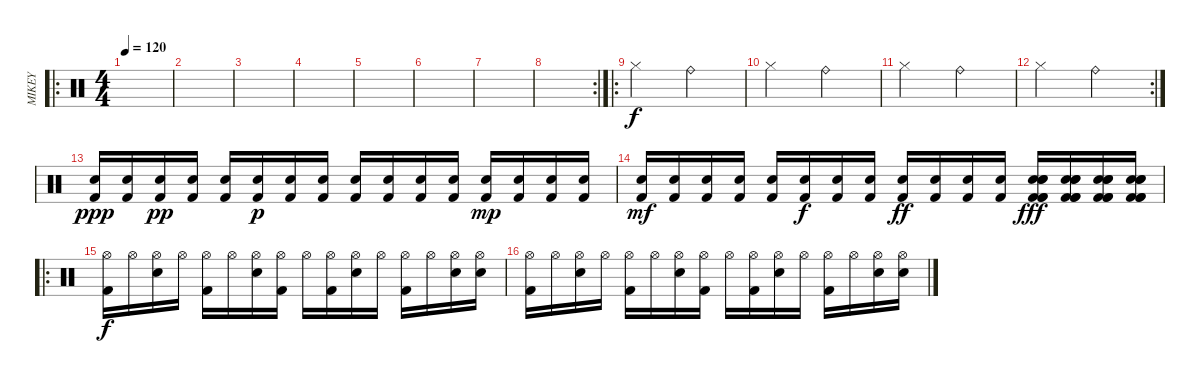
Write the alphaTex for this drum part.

\track ("MIKEY" "MIKEY") {instrument percussion}
\staff {score}
\articulation defaults
\ro
\ts (4 4)
\tempo 120
\clef neutral
\ks c
|
|
|
|
|
|
|
\rc 2
|
\ro "Hi-Hat (closed)".2 "Ride (bell)".2
|
"Hi-Hat (closed)".2 "Ride (bell)".2 |
"Hi-Hat (closed)".2 "Ride (bell)".2 |
\rc 2 "Hi-Hat (closed)".2 "Ride (bell)".2
|
("Kick (hit) 2" "Electric Snare (hit)").16{dy ppp} ("Kick (hit) 2" "Electric Snare (hit)").16 ("Kick (hit) 2" "Electric Snare (hit)").16{dy pp} ("Kick (hit) 2" "Electric Snare (hit)").16 ("Kick (hit) 2" "Electric Snare (hit)").16 ("Kick (hit) 2" "Electric Snare (hit)").16{dy p} ("Kick (hit) 2" "Electric Snare (hit)").16 ("Kick (hit) 2" "Electric Snare (hit)").16 ("Kick (hit) 2" "Electric Snare (hit)").16 ("Kick (hit) 2" "Electric Snare (hit)").16 ("Kick (hit) 2" "Electric Snare (hit)").16 ("Kick (hit) 2" "Electric Snare (hit)").16 ("Kick (hit) 2" "Electric Snare (hit)").16{dy mp} ("Kick (hit) 2" "Electric Snare (hit)").16 ("Kick (hit) 2" "Electric Snare (hit)").16 ("Kick (hit) 2" "Electric Snare (hit)").16 |
("Kick (hit) 2" "Electric Snare (hit)").16{dy mf} ("Kick (hit) 2" "Electric Snare (hit)").16 ("Kick (hit) 2" "Electric Snare (hit)").16 ("Kick (hit) 2" "Electric Snare (hit)").16 ("Kick (hit) 2" "Electric Snare (hit)").16 ("Kick (hit) 2" "Electric Snare (hit)").16{dy f} ("Kick (hit) 2" "Electric Snare (hit)").16 ("Kick (hit) 2" "Electric Snare (hit)").16 ("Kick (hit) 2" "Electric Snare (hit)").16{dy ff} ("Kick (hit) 2" "Electric Snare (hit)").16 ("Kick (hit) 2" "Electric Snare (hit)").16 ("Kick (hit) 2" "Electric Snare (hit)").16 ("Electric Snare (hit)" "Kick (hit) 2" "Electric Snare (hit)" "Kick (hit) 2" "Kick (hit) 2" "Electric Snare (hit)").16{dy fff} ("Electric Snare (hit)" "Kick (hit) 2" "Electric Snare (hit)" "Kick (hit) 2" "Kick (hit) 2" "Electric Snare (hit)").16 ("Electric Snare (hit)" "Kick (hit) 2" "Electric Snare (hit)" "Kick (hit) 2" "Kick (hit) 2" "Electric Snare (hit)").16 ("Electric Snare (hit)" "Kick (hit) 2" "Electric Snare (hit)" "Kick (hit) 2" "Kick (hit) 2" "Electric Snare (hit)").16 |
\ro
("Kick (hit) 2" "Hi-Hat (open)").16{dy f} "Hi-Hat (open)".16 ("Electric Snare (hit)" "Hi-Hat (open)").16 "Hi-Hat (open)".16 ("Kick (hit) 2" "Hi-Hat (open)").16 "Hi-Hat (open)".16 ("Electric Snare (hit)" "Hi-Hat (open)").16 ("Kick (hit) 2" "Hi-Hat (open)").16 "Hi-Hat (open)".16 ("Kick (hit) 2" "Hi-Hat (open)").16 ("Electric Snare (hit)" "Hi-Hat (open)").16 "Hi-Hat (open)".16 ("Kick (hit) 2" "Hi-Hat (open)").16 "Hi-Hat (open)".16 ("Electric Snare (hit)" "Hi-Hat (open)").16 ("Electric Snare (hit)" "Hi-Hat (open)").16 |
("Kick (hit) 2" "Hi-Hat (open)").16 "Hi-Hat (open)".16 ("Electric Snare (hit)" "Hi-Hat (open)").16 "Hi-Hat (open)".16 ("Kick (hit) 2" "Hi-Hat (open)").16 "Hi-Hat (open)".16 ("Electric Snare (hit)" "Hi-Hat (open)").16 ("Kick (hit) 2" "Hi-Hat (open)").16 "Hi-Hat (open)".16 ("Kick (hit) 2" "Hi-Hat (open)").16 ("Electric Snare (hit)" "Hi-Hat (open)").16 "Hi-Hat (open)".16 ("Kick (hit) 2" "Hi-Hat (open)").16 "Hi-Hat (open)".16 ("Electric Snare (hit)" "Hi-Hat (open)").16 ("Electric Snare (hit)" "Hi-Hat (open)").16
